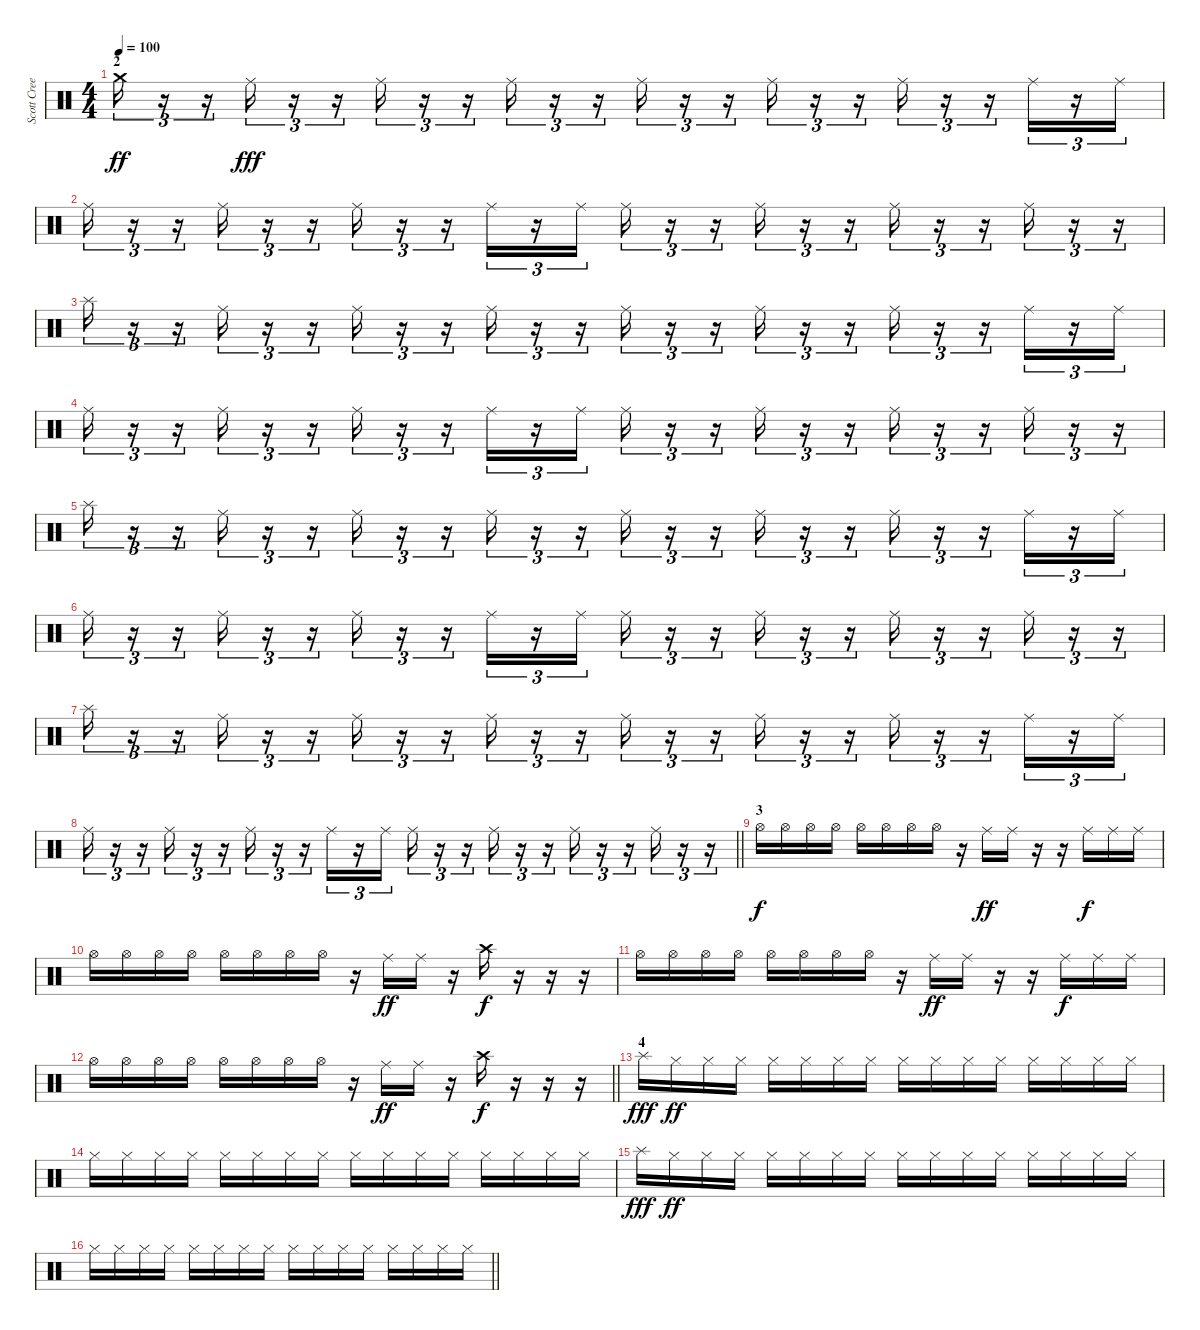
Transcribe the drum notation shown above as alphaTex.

\track ("Scott Creekmore" "Scott Cree") {instrument percussion}
\staff {score}
\articulation defaults
\ts (4 4)
\section ("" "2")
\tempo 100
\clef neutral
\ks c "Crash medium (hit)".16{tu (3 2) dy ff}
r.16{tu (3 2)} r.16{tu (3 2)} "Ride (middle)".16{tu (3 2) dy fff} r.16{tu (3 2)} r.16{tu (3 2)} "Ride (middle)".16{tu (3 2)} r.16{tu (3 2)} r.16{tu (3 2)} "Ride (middle)".16{tu (3 2)} r.16{tu (3 2)} r.16{tu (3 2)} "Ride (middle)".16{tu (3 2)} r.16{tu (3 2)} r.16{tu (3 2)} "Ride (middle)".16{tu (3 2)} r.16{tu (3 2)} r.16{tu (3 2)} "Ride (middle)".16{tu (3 2)} r.16{tu (3 2)} r.16{tu (3 2)} "Ride (middle)".16{tu (3 2)} r.16{tu (3 2)} "Ride (middle)".16{tu (3 2)} |
"Ride (middle)".16{tu (3 2)} r.16{tu (3 2)} r.16{tu (3 2)} "Ride (middle)".16{tu (3 2)} r.16{tu (3 2)} r.16{tu (3 2)} "Ride (middle)".16{tu (3 2)} r.16{tu (3 2)} r.16{tu (3 2)} "Ride (middle)".16{tu (3 2)} r.16{tu (3 2)} "Ride (middle)".16{tu (3 2)} "Ride (middle)".16{tu (3 2)} r.16{tu (3 2)} r.16{tu (3 2)} "Ride (middle)".16{tu (3 2)} r.16{tu (3 2)} r.16{tu (3 2)} "Ride (middle)".16{tu (3 2)} r.16{tu (3 2)} r.16{tu (3 2)} "Ride (middle)".16{tu (3 2)} r.16{tu (3 2)} r.16{tu (3 2)} |
"Splash (hit)".16{tu (3 2)} r.16{tu (3 2)} r.16{tu (3 2)} "Ride (middle)".16{tu (3 2)} r.16{tu (3 2)} r.16{tu (3 2)} "Ride (middle)".16{tu (3 2)} r.16{tu (3 2)} r.16{tu (3 2)} "Ride (middle)".16{tu (3 2)} r.16{tu (3 2)} r.16{tu (3 2)} "Ride (middle)".16{tu (3 2)} r.16{tu (3 2)} r.16{tu (3 2)} "Ride (middle)".16{tu (3 2)} r.16{tu (3 2)} r.16{tu (3 2)} "Ride (middle)".16{tu (3 2)} r.16{tu (3 2)} r.16{tu (3 2)} "Ride (middle)".16{tu (3 2)} r.16{tu (3 2)} "Ride (middle)".16{tu (3 2)} |
"Ride (middle)".16{tu (3 2)} r.16{tu (3 2)} r.16{tu (3 2)} "Ride (middle)".16{tu (3 2)} r.16{tu (3 2)} r.16{tu (3 2)} "Ride (middle)".16{tu (3 2)} r.16{tu (3 2)} r.16{tu (3 2)} "Ride (middle)".16{tu (3 2)} r.16{tu (3 2)} "Ride (middle)".16{tu (3 2)} "Ride (middle)".16{tu (3 2)} r.16{tu (3 2)} r.16{tu (3 2)} "Ride (middle)".16{tu (3 2)} r.16{tu (3 2)} r.16{tu (3 2)} "Ride (middle)".16{tu (3 2)} r.16{tu (3 2)} r.16{tu (3 2)} "Ride (middle)".16{tu (3 2)} r.16{tu (3 2)} r.16{tu (3 2)} |
"Splash (hit)".16{tu (3 2)} r.16{tu (3 2)} r.16{tu (3 2)} "Ride (middle)".16{tu (3 2)} r.16{tu (3 2)} r.16{tu (3 2)} "Ride (middle)".16{tu (3 2)} r.16{tu (3 2)} r.16{tu (3 2)} "Ride (middle)".16{tu (3 2)} r.16{tu (3 2)} r.16{tu (3 2)} "Ride (middle)".16{tu (3 2)} r.16{tu (3 2)} r.16{tu (3 2)} "Ride (middle)".16{tu (3 2)} r.16{tu (3 2)} r.16{tu (3 2)} "Ride (middle)".16{tu (3 2)} r.16{tu (3 2)} r.16{tu (3 2)} "Ride (middle)".16{tu (3 2)} r.16{tu (3 2)} "Ride (middle)".16{tu (3 2)} |
"Ride (middle)".16{tu (3 2)} r.16{tu (3 2)} r.16{tu (3 2)} "Ride (middle)".16{tu (3 2)} r.16{tu (3 2)} r.16{tu (3 2)} "Ride (middle)".16{tu (3 2)} r.16{tu (3 2)} r.16{tu (3 2)} "Ride (middle)".16{tu (3 2)} r.16{tu (3 2)} "Ride (middle)".16{tu (3 2)} "Ride (middle)".16{tu (3 2)} r.16{tu (3 2)} r.16{tu (3 2)} "Ride (middle)".16{tu (3 2)} r.16{tu (3 2)} r.16{tu (3 2)} "Ride (middle)".16{tu (3 2)} r.16{tu (3 2)} r.16{tu (3 2)} "Ride (middle)".16{tu (3 2)} r.16{tu (3 2)} r.16{tu (3 2)} |
"Splash (hit)".16{tu (3 2)} r.16{tu (3 2)} r.16{tu (3 2)} "Ride (middle)".16{tu (3 2)} r.16{tu (3 2)} r.16{tu (3 2)} "Ride (middle)".16{tu (3 2)} r.16{tu (3 2)} r.16{tu (3 2)} "Ride (middle)".16{tu (3 2)} r.16{tu (3 2)} r.16{tu (3 2)} "Ride (middle)".16{tu (3 2)} r.16{tu (3 2)} r.16{tu (3 2)} "Ride (middle)".16{tu (3 2)} r.16{tu (3 2)} r.16{tu (3 2)} "Ride (middle)".16{tu (3 2)} r.16{tu (3 2)} r.16{tu (3 2)} "Ride (middle)".16{tu (3 2)} r.16{tu (3 2)} "Ride (middle)".16{tu (3 2)} |
\barLineRight lightlight "Ride (middle)".16{tu (3 2)}
r.16{tu (3 2)} r.16{tu (3 2)} "Ride (middle)".16{tu (3 2)} r.16{tu (3 2)} r.16{tu (3 2)} "Ride (middle)".16{tu (3 2)} r.16{tu (3 2)} r.16{tu (3 2)} "Ride (middle)".16{tu (3 2)} r.16{tu (3 2)} "Ride (middle)".16{tu (3 2)} "Ride (middle)".16{tu (3 2)} r.16{tu (3 2)} r.16{tu (3 2)} "Ride (middle)".16{tu (3 2)} r.16{tu (3 2)} r.16{tu (3 2)} "Ride (middle)".16{tu (3 2)} r.16{tu (3 2)} r.16{tu (3 2)} "Ride (middle)".16{tu (3 2)} r.16{tu (3 2)} r.16{tu (3 2)} |
\section ("" "3")
"Hi-Hat (open)".16{dy f} "Hi-Hat (open)".16 "Hi-Hat (open)".16 "Hi-Hat (open)".16 "Hi-Hat (open)".16 "Hi-Hat (open)".16 "Hi-Hat (open)".16 "Hi-Hat (open)".16 r.16 "Ride (middle)".16{dy ff} "Ride (middle)".16 r.16 r.16 "Ride (middle)".16{dy f} "Ride (middle)".16 "Ride (middle)".16 |
"Hi-Hat (open)".16 "Hi-Hat (open)".16 "Hi-Hat (open)".16 "Hi-Hat (open)".16 "Hi-Hat (open)".16 "Hi-Hat (open)".16 "Hi-Hat (open)".16 "Hi-Hat (open)".16 r.16 "Ride (middle)".16{dy ff} "Ride (middle)".16 r.16 "Crash high (hit)".16{dy f} r.16 r.16 r.16 |
"Hi-Hat (open)".16 "Hi-Hat (open)".16 "Hi-Hat (open)".16 "Hi-Hat (open)".16 "Hi-Hat (open)".16 "Hi-Hat (open)".16 "Hi-Hat (open)".16 "Hi-Hat (open)".16 r.16 "Ride (middle)".16{dy ff} "Ride (middle)".16 r.16 r.16 "Ride (middle)".16{dy f} "Ride (middle)".16 "Ride (middle)".16 |
\barLineRight lightlight "Hi-Hat (open)".16 "Hi-Hat (open)".16 "Hi-Hat (open)".16 "Hi-Hat (open)".16 "Hi-Hat (open)".16 "Hi-Hat (open)".16 "Hi-Hat (open)".16 "Hi-Hat (open)".16
r.16 "Ride (middle)".16{dy ff} "Ride (middle)".16 r.16 "Crash high (hit)".16{dy f} r.16 r.16 r.16 |
\section ("" "4")
"Splash (hit)".16{dy fff} "Hi-Hat (closed)".16{dy ff} "Hi-Hat (closed)".16 "Hi-Hat (closed)".16 "Hi-Hat (closed)".16 "Hi-Hat (closed)".16 "Hi-Hat (closed)".16 "Hi-Hat (closed)".16 "Hi-Hat (closed)".16 "Hi-Hat (closed)".16 "Hi-Hat (closed)".16 "Hi-Hat (closed)".16 "Hi-Hat (closed)".16 "Hi-Hat (closed)".16 "Hi-Hat (closed)".16 "Hi-Hat (closed)".16 |
"Hi-Hat (closed)".16 "Hi-Hat (closed)".16 "Hi-Hat (closed)".16 "Hi-Hat (closed)".16 "Hi-Hat (closed)".16 "Hi-Hat (closed)".16 "Hi-Hat (closed)".16 "Hi-Hat (closed)".16 "Hi-Hat (closed)".16 "Hi-Hat (closed)".16 "Hi-Hat (closed)".16 "Hi-Hat (closed)".16 "Hi-Hat (closed)".16 "Hi-Hat (closed)".16 "Hi-Hat (closed)".16 "Hi-Hat (closed)".16 |
"Splash (hit)".16{dy fff} "Hi-Hat (closed)".16{dy ff} "Hi-Hat (closed)".16 "Hi-Hat (closed)".16 "Hi-Hat (closed)".16 "Hi-Hat (closed)".16 "Hi-Hat (closed)".16 "Hi-Hat (closed)".16 "Hi-Hat (closed)".16 "Hi-Hat (closed)".16 "Hi-Hat (closed)".16 "Hi-Hat (closed)".16 "Hi-Hat (closed)".16 "Hi-Hat (closed)".16 "Hi-Hat (closed)".16 "Hi-Hat (closed)".16 |
\barLineRight lightlight "Hi-Hat (closed)".16 "Hi-Hat (closed)".16 "Hi-Hat (closed)".16 "Hi-Hat (closed)".16 "Hi-Hat (closed)".16 "Hi-Hat (closed)".16 "Hi-Hat (closed)".16 "Hi-Hat (closed)".16 "Hi-Hat (closed)".16 "Hi-Hat (closed)".16 "Hi-Hat (closed)".16 "Hi-Hat (closed)".16 "Hi-Hat (closed)".16 "Hi-Hat (closed)".16 "Hi-Hat (closed)".16 "Hi-Hat (closed)".16
